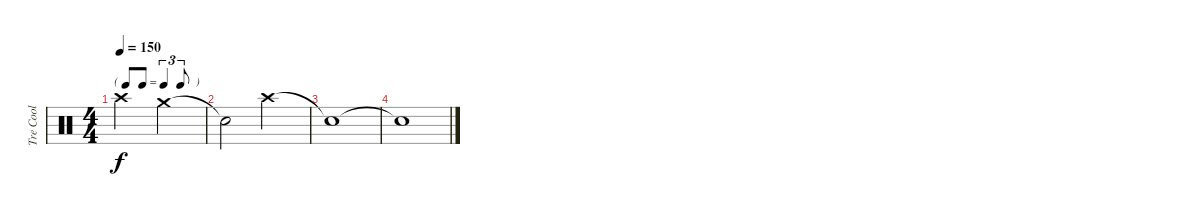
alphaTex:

\track ("Tre Cool" "Tre Cool") {instrument percussion}
\staff {score}
\articulation defaults
\ts (4 4)
\tf triplet8th
\tempo 150
\clef neutral
\ks c "Crash high (hit)".2{dy f} "Crash medium (hit)".2
|
"Snare (hit)"{t}.2 "Crash high (hit)".2 |
"Snare (hit)"{t}.1 |
"Snare (hit)"{t}.1
